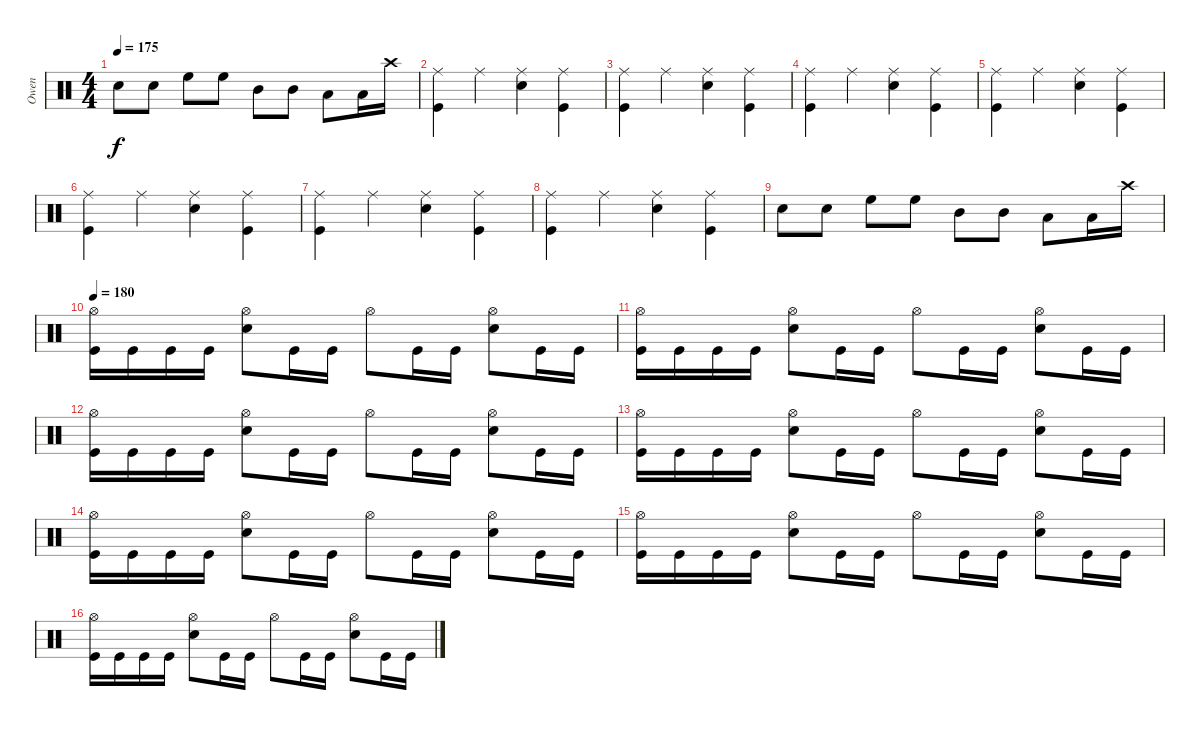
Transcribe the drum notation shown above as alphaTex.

\track ("Owen" "Owen") {instrument percussion}
\staff {score}
\articulation defaults
\ts (4 4)
\tempo 175
\clef neutral
\ks c "Snare (hit) 2".8{dy f} "Snare (hit) 2".8 "High Floor Tom (hit)".8 "High Floor Tom (hit)".8 "Mid Tom (hit)".8 "Mid Tom (hit)".8 "Low Tom (hit)".8 "Low Tom (hit)".16 "Crash high (hit)".16
|
("Ride (middle)" "Kick (hit)").4 "Ride (middle)".4 ("Ride (middle)" "Snare (hit) 2").4 ("Ride (middle)" "Kick (hit)").4 |
("Ride (middle)" "Kick (hit)").4 "Ride (middle)".4 ("Ride (middle)" "Snare (hit) 2").4 ("Ride (middle)" "Kick (hit)").4 |
("Ride (middle)" "Kick (hit)").4 "Ride (middle)".4 ("Ride (middle)" "Snare (hit) 2").4 ("Ride (middle)" "Kick (hit)").4 |
("Ride (middle)" "Kick (hit)").4 "Ride (middle)".4 ("Ride (middle)" "Snare (hit) 2").4 ("Ride (middle)" "Kick (hit)").4 |
("Ride (middle)" "Kick (hit)").4 "Ride (middle)".4 ("Ride (middle)" "Snare (hit) 2").4 ("Ride (middle)" "Kick (hit)").4 |
("Ride (middle)" "Kick (hit)").4 "Ride (middle)".4 ("Ride (middle)" "Snare (hit) 2").4 ("Ride (middle)" "Kick (hit)").4 |
("Ride (middle)" "Kick (hit)").4 "Ride (middle)".4 ("Ride (middle)" "Snare (hit) 2").4 ("Ride (middle)" "Kick (hit)").4 |
"Snare (hit) 2".8 "Snare (hit) 2".8 "High Floor Tom (hit)".8 "High Floor Tom (hit)".8 "Mid Tom (hit)".8 "Mid Tom (hit)".8 "Low Tom (hit)".8 "Low Tom (hit)".16 "Crash high (hit)".16 |
\tempo 180
("Hi-Hat (open)" "Kick (hit)").16 "Kick (hit)".16 "Kick (hit)".16 "Kick (hit)".16 ("Hi-Hat (open)" "Snare (hit) 2").8 "Kick (hit)".16 "Kick (hit)".16 "Hi-Hat (open)".8 "Kick (hit)".16 "Kick (hit)".16 ("Hi-Hat (open)" "Snare (hit) 2").8 "Kick (hit)".16 "Kick (hit)".16 |
("Hi-Hat (open)" "Kick (hit)").16 "Kick (hit)".16 "Kick (hit)".16 "Kick (hit)".16 ("Hi-Hat (open)" "Snare (hit) 2").8 "Kick (hit)".16 "Kick (hit)".16 "Hi-Hat (open)".8 "Kick (hit)".16 "Kick (hit)".16 ("Hi-Hat (open)" "Snare (hit) 2").8 "Kick (hit)".16 "Kick (hit)".16 |
("Hi-Hat (open)" "Kick (hit)").16 "Kick (hit)".16 "Kick (hit)".16 "Kick (hit)".16 ("Hi-Hat (open)" "Snare (hit) 2").8 "Kick (hit)".16 "Kick (hit)".16 "Hi-Hat (open)".8 "Kick (hit)".16 "Kick (hit)".16 ("Hi-Hat (open)" "Snare (hit) 2").8 "Kick (hit)".16 "Kick (hit)".16 |
("Hi-Hat (open)" "Kick (hit)").16 "Kick (hit)".16 "Kick (hit)".16 "Kick (hit)".16 ("Hi-Hat (open)" "Snare (hit) 2").8 "Kick (hit)".16 "Kick (hit)".16 "Hi-Hat (open)".8 "Kick (hit)".16 "Kick (hit)".16 ("Hi-Hat (open)" "Snare (hit) 2").8 "Kick (hit)".16 "Kick (hit)".16 |
("Hi-Hat (open)" "Kick (hit)").16 "Kick (hit)".16 "Kick (hit)".16 "Kick (hit)".16 ("Hi-Hat (open)" "Snare (hit) 2").8 "Kick (hit)".16 "Kick (hit)".16 "Hi-Hat (open)".8 "Kick (hit)".16 "Kick (hit)".16 ("Hi-Hat (open)" "Snare (hit) 2").8 "Kick (hit)".16 "Kick (hit)".16 |
("Hi-Hat (open)" "Kick (hit)").16 "Kick (hit)".16 "Kick (hit)".16 "Kick (hit)".16 ("Hi-Hat (open)" "Snare (hit) 2").8 "Kick (hit)".16 "Kick (hit)".16 "Hi-Hat (open)".8 "Kick (hit)".16 "Kick (hit)".16 ("Hi-Hat (open)" "Snare (hit) 2").8 "Kick (hit)".16 "Kick (hit)".16 |
("Hi-Hat (open)" "Kick (hit)").16 "Kick (hit)".16 "Kick (hit)".16 "Kick (hit)".16 ("Hi-Hat (open)" "Snare (hit) 2").8 "Kick (hit)".16 "Kick (hit)".16 "Hi-Hat (open)".8 "Kick (hit)".16 "Kick (hit)".16 ("Hi-Hat (open)" "Snare (hit) 2").8 "Kick (hit)".16 "Kick (hit)".16
